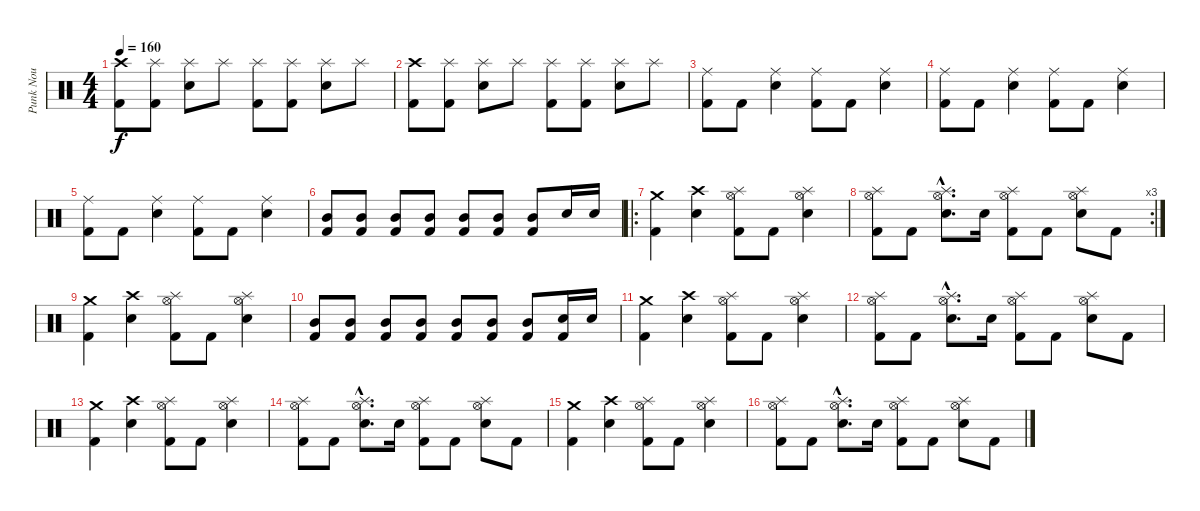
\track ("Punk Nou" "Punk Nou") {instrument percussion}
\staff {score}
\articulation defaults
\ts (4 4)
\tempo 160
\clef neutral
\ks c
("Crash high (hit)" "Kick (hit) 2").8{dy f} ("Splash (hit)" "Kick (hit) 2").8 ("Splash (hit)" "Electric Snare (hit)").8 "Splash (hit)".8 ("Splash (hit)" "Kick (hit) 2").8 ("Splash (hit)" "Kick (hit) 2").8 ("Splash (hit)" "Electric Snare (hit)").8 "Splash (hit)".8 |
("Crash high (hit)" "Kick (hit) 2").8 ("Splash (hit)" "Kick (hit) 2").8 ("Splash (hit)" "Electric Snare (hit)").8 "Splash (hit)".8 ("Splash (hit)" "Kick (hit) 2").8 ("Splash (hit)" "Kick (hit) 2").8 ("Splash (hit)" "Electric Snare (hit)").8 "Splash (hit)".8 |
("Ride (middle)" "Kick (hit) 2").8 "Kick (hit) 2".8 ("Ride (middle)" "Electric Snare (hit)").4 ("Ride (middle)" "Kick (hit) 2").8 "Kick (hit) 2".8 ("Ride (middle)" "Electric Snare (hit)").4 |
("Ride (middle)" "Kick (hit) 2").8 "Kick (hit) 2".8 ("Ride (middle)" "Electric Snare (hit)").4 ("Ride (middle)" "Kick (hit) 2").8 "Kick (hit) 2".8 ("Ride (middle)" "Electric Snare (hit)").4 |
("Ride (middle)" "Kick (hit) 2").8 "Kick (hit) 2".8 ("Ride (middle)" "Electric Snare (hit)").4 ("Ride (middle)" "Kick (hit) 2").8 "Kick (hit) 2".8 ("Ride (middle)" "Electric Snare (hit)").4 |
("Mid Tom (hit)" "Kick (hit) 2").8 ("Mid Tom (hit)" "Kick (hit) 2").8 ("Mid Tom (hit)" "Kick (hit) 2").8 ("Mid Tom (hit)" "Kick (hit) 2").8 ("Mid Tom (hit)" "Kick (hit) 2").8 ("Mid Tom (hit)" "Kick (hit) 2").8 ("Mid Tom (hit)" "Kick (hit) 2").8 "Electric Snare (hit)".16 "Electric Snare (hit)".16 |
\ro
("Crash medium (hit)" "Kick (hit) 2").4 ("Crash high (hit)" "Electric Snare (hit)").4 ("Splash (hit)" "Hi-Hat (open)" "Kick (hit) 2").8 "Kick (hit) 2".8 ("Splash (hit)" "Hi-Hat (open)" "Electric Snare (hit)").4 |
\rc 3
("Splash (hit)" "Hi-Hat (open)" "Kick (hit) 2").8 "Kick (hit) 2".8 ("Splash (hit)"{hac} "Hi-Hat (open)"{hac} "Electric Snare (hit)"{hac}).8{d} "Electric Snare (hit)".16 ("Splash (hit)" "Hi-Hat (open)" "Kick (hit) 2").8 "Kick (hit) 2".8 ("Splash (hit)" "Hi-Hat (open)" "Electric Snare (hit)").8 "Kick (hit) 2".8 |
("Crash medium (hit)" "Kick (hit) 2").4 ("Crash high (hit)" "Electric Snare (hit)").4 ("Splash (hit)" "Hi-Hat (open)" "Kick (hit) 2").8 "Kick (hit) 2".8 ("Splash (hit)" "Hi-Hat (open)" "Electric Snare (hit)").4 |
("Mid Tom (hit)" "Kick (hit) 2").8 ("Mid Tom (hit)" "Kick (hit) 2").8 ("Mid Tom (hit)" "Kick (hit) 2").8 ("Mid Tom (hit)" "Kick (hit) 2").8 ("Mid Tom (hit)" "Kick (hit) 2").8 ("Mid Tom (hit)" "Kick (hit) 2").8 ("Mid Tom (hit)" "Kick (hit) 2").8 ("Electric Snare (hit)" "Kick (hit) 2").16 "Electric Snare (hit)".16 |
("Crash medium (hit)" "Kick (hit) 2").4 ("Crash high (hit)" "Electric Snare (hit)").4 ("Splash (hit)" "Hi-Hat (open)" "Kick (hit) 2").8 "Kick (hit) 2".8 ("Splash (hit)" "Hi-Hat (open)" "Electric Snare (hit)").4 |
("Splash (hit)" "Hi-Hat (open)" "Kick (hit) 2").8 "Kick (hit) 2".8 ("Splash (hit)"{hac} "Hi-Hat (open)"{hac} "Electric Snare (hit)"{hac}).8{d} "Electric Snare (hit)".16 ("Splash (hit)" "Hi-Hat (open)" "Kick (hit) 2").8 "Kick (hit) 2".8 ("Splash (hit)" "Hi-Hat (open)" "Electric Snare (hit)").8 "Kick (hit) 2".8 |
("Crash medium (hit)" "Kick (hit) 2").4 ("Crash high (hit)" "Electric Snare (hit)").4 ("Splash (hit)" "Hi-Hat (open)" "Kick (hit) 2").8 "Kick (hit) 2".8 ("Splash (hit)" "Hi-Hat (open)" "Electric Snare (hit)").4 |
("Splash (hit)" "Hi-Hat (open)" "Kick (hit) 2").8 "Kick (hit) 2".8 ("Splash (hit)"{hac} "Hi-Hat (open)"{hac} "Electric Snare (hit)"{hac}).8{d} "Electric Snare (hit)".16 ("Splash (hit)" "Hi-Hat (open)" "Kick (hit) 2").8 "Kick (hit) 2".8 ("Splash (hit)" "Hi-Hat (open)" "Electric Snare (hit)").8 "Kick (hit) 2".8 |
("Crash medium (hit)" "Kick (hit) 2").4 ("Crash high (hit)" "Electric Snare (hit)").4 ("Splash (hit)" "Hi-Hat (open)" "Kick (hit) 2").8 "Kick (hit) 2".8 ("Splash (hit)" "Hi-Hat (open)" "Electric Snare (hit)").4 |
("Splash (hit)" "Hi-Hat (open)" "Kick (hit) 2").8 "Kick (hit) 2".8 ("Splash (hit)"{hac} "Hi-Hat (open)"{hac} "Electric Snare (hit)"{hac}).8{d} "Electric Snare (hit)".16 ("Splash (hit)" "Hi-Hat (open)" "Kick (hit) 2").8 "Kick (hit) 2".8 ("Splash (hit)" "Hi-Hat (open)" "Electric Snare (hit)").8 "Kick (hit) 2".8
